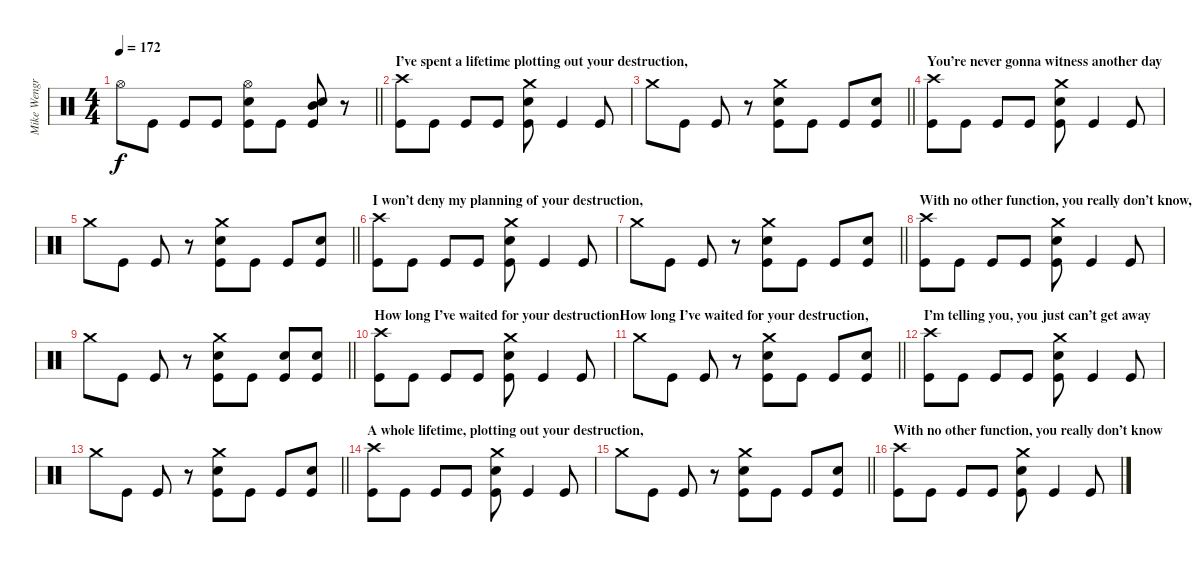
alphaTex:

\track ("Mike Wengren - Drums" "Mike Wengr") {instrument percussion}
\staff {score}
\articulation defaults
\ts (4 4)
\tempo 172
\clef neutral
\barLineRight lightlight
\ks c "Hi-Hat (open)".8{dy f} "Kick (hit)".8 "Kick (hit)".8 "Kick (hit)".8
("Hi-Hat (open)" "Snare (hit) 2" "Kick (hit)").8 "Kick (hit)".8 ("Snare (hit) 2" "Mid Tom (hit)" "Kick (hit)").8 r.8 |
\section ("" "I’ve spent a lifetime plotting out your destruction,")
("Crash high (hit)" "Kick (hit)").8 "Kick (hit)".8 "Kick (hit)".8 "Kick (hit)".8 ("Crash medium (hit)" "Snare (hit) 2" "Kick (hit)").8 "Kick (hit)".4 "Kick (hit)".8 |
\barLineRight lightlight "Crash medium (hit)".8 "Kick (hit)".8 "Kick (hit)".8
r.8 ("Crash medium (hit)" "Snare (hit) 2" "Kick (hit)").8 "Kick (hit)".8 "Kick (hit)".8 ("Snare (hit) 2" "Kick (hit)").8 |
\section ("" "You’re never gonna witness another day")
("Crash high (hit)" "Kick (hit)").8 "Kick (hit)".8 "Kick (hit)".8 "Kick (hit)".8 ("Crash medium (hit)" "Snare (hit) 2" "Kick (hit)").8 "Kick (hit)".4 "Kick (hit)".8 |
\barLineRight lightlight "Crash medium (hit)".8 "Kick (hit)".8 "Kick (hit)".8
r.8 ("Crash medium (hit)" "Snare (hit) 2" "Kick (hit)").8 "Kick (hit)".8 "Kick (hit)".8 ("Snare (hit) 2" "Kick (hit)").8 |
\section ("" "I won’t deny my planning of your destruction,")
("Crash high (hit)" "Kick (hit)").8 "Kick (hit)".8 "Kick (hit)".8 "Kick (hit)".8 ("Crash medium (hit)" "Snare (hit) 2" "Kick (hit)").8 "Kick (hit)".4 "Kick (hit)".8 |
\barLineRight lightlight "Crash medium (hit)".8 "Kick (hit)".8 "Kick (hit)".8
r.8 ("Crash medium (hit)" "Snare (hit) 2" "Kick (hit)").8 "Kick (hit)".8 "Kick (hit)".8 ("Snare (hit) 2" "Kick (hit)").8 |
\section ("" "With no other function, you really don’t know,")
("Crash high (hit)" "Kick (hit)").8 "Kick (hit)".8 "Kick (hit)".8 "Kick (hit)".8 ("Crash medium (hit)" "Snare (hit) 2" "Kick (hit)").8 "Kick (hit)".4 "Kick (hit)".8 |
\barLineRight lightlight "Crash medium (hit)".8 "Kick (hit)".8 "Kick (hit)".8
r.8 ("Crash medium (hit)" "Snare (hit) 2" "Kick (hit)").8 "Kick (hit)".8 ("Snare (hit) 2" "Kick (hit)").8 ("Snare (hit) 2" "Kick (hit)").8 |
\section ("" "How long I’ve waited for your destructionHow long I’ve waited for your destruction,")
("Crash high (hit)" "Kick (hit)").8 "Kick (hit)".8 "Kick (hit)".8 "Kick (hit)".8 ("Crash medium (hit)" "Snare (hit) 2" "Kick (hit)").8 "Kick (hit)".4 "Kick (hit)".8 |
\barLineRight lightlight "Crash medium (hit)".8 "Kick (hit)".8 "Kick (hit)".8
r.8 ("Crash medium (hit)" "Snare (hit) 2" "Kick (hit)").8 "Kick (hit)".8 "Kick (hit)".8 ("Snare (hit) 2" "Kick (hit)").8 |
\section ("" "I’m telling you, you just can’t get away")
("Crash high (hit)" "Kick (hit)").8 "Kick (hit)".8 "Kick (hit)".8 "Kick (hit)".8 ("Crash medium (hit)" "Snare (hit) 2" "Kick (hit)").8 "Kick (hit)".4 "Kick (hit)".8 |
\barLineRight lightlight "Crash medium (hit)".8 "Kick (hit)".8 "Kick (hit)".8
r.8 ("Crash medium (hit)" "Snare (hit) 2" "Kick (hit)").8 "Kick (hit)".8 "Kick (hit)".8 ("Snare (hit) 2" "Kick (hit)").8 |
\section ("" "A whole lifetime, plotting out your destruction,")
("Crash high (hit)" "Kick (hit)").8 "Kick (hit)".8 "Kick (hit)".8 "Kick (hit)".8 ("Crash medium (hit)" "Snare (hit) 2" "Kick (hit)").8 "Kick (hit)".4 "Kick (hit)".8 |
\barLineRight lightlight "Crash medium (hit)".8 "Kick (hit)".8 "Kick (hit)".8
r.8 ("Crash medium (hit)" "Snare (hit) 2" "Kick (hit)").8 "Kick (hit)".8 "Kick (hit)".8 ("Snare (hit) 2" "Kick (hit)").8 |
\section ("" "With no other function, you really don’t know")
("Crash high (hit)" "Kick (hit)").8 "Kick (hit)".8 "Kick (hit)".8 "Kick (hit)".8 ("Crash medium (hit)" "Snare (hit) 2" "Kick (hit)").8 "Kick (hit)".4 "Kick (hit)".8
